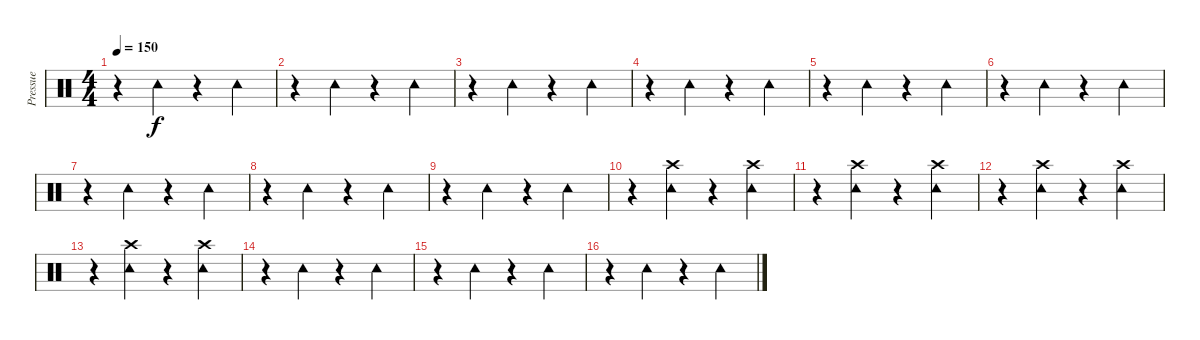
\track ("Pressue" "Pressue") {instrument percussion}
\staff {score}
\articulation defaults
\ts (4 4)
\tempo 150
\clef neutral
\ks c
r.4{dy f} "Tambourine (hit)".4 r.4 "Tambourine (hit)".4 |
r.4 "Tambourine (hit)".4 r.4 "Tambourine (hit)".4 |
r.4 "Tambourine (hit)".4 r.4 "Tambourine (hit)".4 |
r.4 "Tambourine (hit)".4 r.4 "Tambourine (hit)".4 |
r.4 "Tambourine (hit)".4 r.4 "Tambourine (hit)".4 |
r.4 "Tambourine (hit)".4 r.4 "Tambourine (hit)".4 |
r.4 "Tambourine (hit)".4 r.4 "Tambourine (hit)".4 |
r.4 "Tambourine (hit)".4 r.4 "Tambourine (hit)".4 |
r.4 "Tambourine (hit)".4 r.4 "Tambourine (hit)".4 |
r.4 ("Crash high (hit)" "Tambourine (hit)").4 r.4 ("Crash high (hit)" "Tambourine (hit)").4 |
r.4 ("Crash high (hit)" "Tambourine (hit)").4 r.4 ("Crash high (hit)" "Tambourine (hit)").4 |
r.4 ("Crash high (hit)" "Tambourine (hit)").4 r.4 ("Crash high (hit)" "Tambourine (hit)").4 |
r.4 ("Crash high (hit)" "Tambourine (hit)").4 r.4 ("Crash high (hit)" "Tambourine (hit)").4 |
r.4 "Tambourine (hit)".4 r.4 "Tambourine (hit)".4 |
r.4 "Tambourine (hit)".4 r.4 "Tambourine (hit)".4 |
r.4 "Tambourine (hit)".4 r.4 "Tambourine (hit)".4
